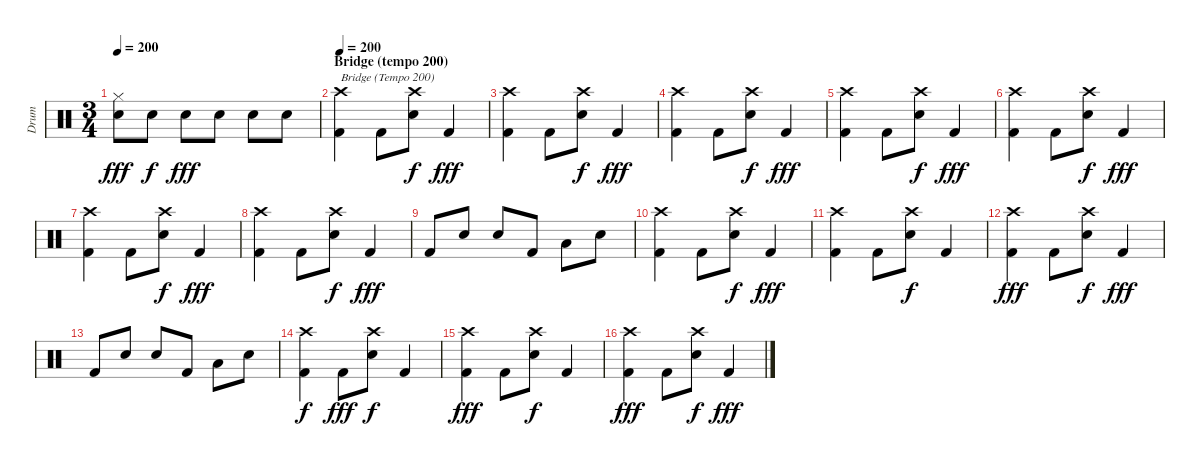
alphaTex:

\track ("Drum" "Drum") {instrument percussion}
\staff {score}
\articulation defaults
\ts (3 4)
\tempo 200
\clef neutral
\ks c
("Hi-Hat (closed)" "Snare (hit) 2").8{dy fff} "Snare (hit) 2".8{dy f} "Snare (hit) 2".8{dy fff} "Snare (hit) 2".8 "Snare (hit) 2".8 "Snare (hit) 2".8 |
\section ("" "Bridge (tempo 200)")
\tempo 200
("Crash high (hit)" "Kick (hit) 2").4{txt "Bridge (Tempo 200)"} "Kick (hit) 2".8 ("Crash high (hit)" "Snare (hit) 2").8{dy f} "Kick (hit) 2".4{dy fff} |
("Crash high (hit)" "Kick (hit) 2").4 "Kick (hit) 2".8 ("Crash high (hit)" "Snare (hit) 2").8{dy f} "Kick (hit) 2".4{dy fff} |
("Crash high (hit)" "Kick (hit) 2").4 "Kick (hit) 2".8 ("Crash high (hit)" "Snare (hit) 2").8{dy f} "Kick (hit) 2".4{dy fff} |
("Crash high (hit)" "Kick (hit) 2").4 "Kick (hit) 2".8 ("Crash high (hit)" "Snare (hit) 2").8{dy f} "Kick (hit) 2".4{dy fff} |
("Crash high (hit)" "Kick (hit) 2").4 "Kick (hit) 2".8 ("Crash high (hit)" "Snare (hit) 2").8{dy f} "Kick (hit) 2".4{dy fff} |
("Crash high (hit)" "Kick (hit) 2").4 "Kick (hit) 2".8 ("Crash high (hit)" "Snare (hit) 2").8{dy f} "Kick (hit) 2".4{dy fff} |
("Crash high (hit)" "Kick (hit) 2").4 "Kick (hit) 2".8 ("Crash high (hit)" "Snare (hit) 2").8{dy f} "Kick (hit) 2".4{dy fff} |
"Kick (hit) 2".8 "Snare (hit) 2".8 "Snare (hit) 2".8 "Kick (hit) 2".8 "Low Tom (hit)".8 "Snare (hit) 2".8 |
("Crash high (hit)" "Kick (hit) 2").4 "Kick (hit) 2".8 ("Crash high (hit)" "Snare (hit) 2").8{dy f} "Kick (hit) 2".4{dy fff} |
("Crash high (hit)" "Kick (hit) 2").4 "Kick (hit) 2".8 ("Crash high (hit)" "Snare (hit) 2").8{dy f} "Kick (hit) 2".4 |
("Crash high (hit)" "Kick (hit) 2").4{dy fff} "Kick (hit) 2".8 ("Crash high (hit)" "Snare (hit) 2").8{dy f} "Kick (hit) 2".4{dy fff} |
"Kick (hit) 2".8 "Snare (hit) 2".8 "Snare (hit) 2".8 "Kick (hit) 2".8 "Low Tom (hit)".8 "Snare (hit) 2".8 |
("Crash high (hit)" "Kick (hit) 2").4{dy f} "Kick (hit) 2".8{dy fff} ("Crash high (hit)" "Snare (hit) 2").8{dy f} "Kick (hit) 2".4 |
("Crash high (hit)" "Kick (hit) 2").4{dy fff} "Kick (hit) 2".8 ("Crash high (hit)" "Snare (hit) 2").8{dy f} "Kick (hit) 2".4 |
("Crash high (hit)" "Kick (hit) 2").4{dy fff} "Kick (hit) 2".8 ("Crash high (hit)" "Snare (hit) 2").8{dy f} "Kick (hit) 2".4{dy fff}
